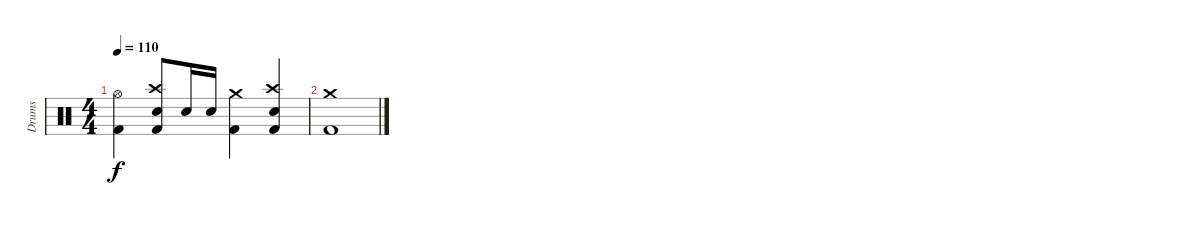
\track ("Drums" "Drums") {instrument percussion}
\staff {score}
\articulation defaults
\ts (4 4)
\tempo 110
\clef neutral
\ks c
("Hi-Hat (open)" "Kick (hit) 2").4{dy f} ("Crash high (hit)" "Electric Snare (hit)" "Kick (hit) 2").8 "Electric Snare (hit)".16 "Electric Snare (hit)".16 ("Crash medium (hit)" "Kick (hit) 2").4 ("Crash high (hit)" "Electric Snare (hit)" "Kick (hit) 2").4 |
("Crash medium (hit)" "Kick (hit) 2").1
